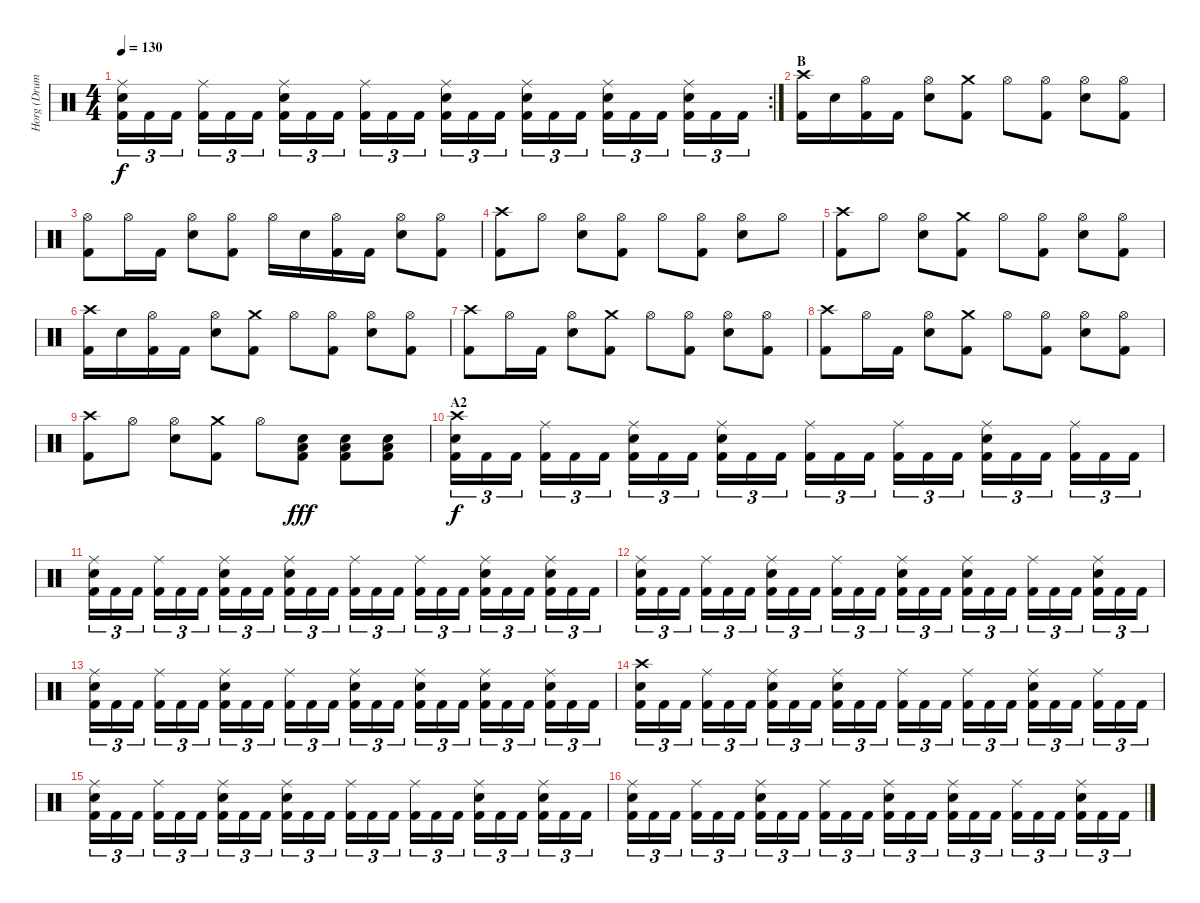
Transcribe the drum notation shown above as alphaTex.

\track ("Horg (Drums)" "Horg (Drum") {instrument percussion}
\staff {score}
\articulation defaults
\rc 2
\ts (4 4)
\tempo 130
\clef neutral
\ks c
("Ride (middle)" "Electric Snare (hit)" "Kick (hit) 2").16{tu (3 2) dy f} "Kick (hit) 2".16{tu (3 2)} "Kick (hit) 2".16{tu (3 2)} ("Ride (middle)" "Kick (hit) 2").16{tu (3 2)} "Kick (hit) 2".16{tu (3 2)} "Kick (hit) 2".16{tu (3 2)} ("Ride (middle)" "Electric Snare (hit)" "Kick (hit) 2").16{tu (3 2)} "Kick (hit) 2".16{tu (3 2)} "Kick (hit) 2".16{tu (3 2)} ("Ride (middle)" "Kick (hit) 2").16{tu (3 2)} "Kick (hit) 2".16{tu (3 2)} "Kick (hit) 2".16{tu (3 2)} ("Ride (middle)" "Electric Snare (hit)" "Kick (hit) 2").16{tu (3 2)} "Kick (hit) 2".16{tu (3 2)} "Kick (hit) 2".16{tu (3 2)} ("Ride (middle)" "Electric Snare (hit)" "Kick (hit) 2").16{tu (3 2)} "Kick (hit) 2".16{tu (3 2)} "Kick (hit) 2".16{tu (3 2)} ("Ride (middle)" "Electric Snare (hit)" "Kick (hit) 2").16{tu (3 2)} "Kick (hit) 2".16{tu (3 2)} "Kick (hit) 2".16{tu (3 2)} ("Ride (middle)" "Electric Snare (hit)" "Kick (hit) 2").16{tu (3 2)} "Kick (hit) 2".16{tu (3 2)} "Kick (hit) 2".16{tu (3 2)} |
\section ("" "B")
("Crash high (hit)" "Kick (hit) 2").16 "Electric Snare (hit)".16 ("Hi-Hat (open)" "Kick (hit) 2").16 "Kick (hit) 2".16 ("Hi-Hat (open)" "Electric Snare (hit)").8 ("Crash medium (hit)" "Kick (hit) 2").8 "Hi-Hat (open)".8 ("Hi-Hat (open)" "Kick (hit) 2").8 ("Hi-Hat (open)" "Electric Snare (hit)").8 ("Hi-Hat (open)" "Kick (hit) 2").8 |
("Hi-Hat (open)" "Kick (hit) 2").8 "Hi-Hat (open)".16 "Kick (hit) 2".16 ("Hi-Hat (open)" "Electric Snare (hit)").8 ("Hi-Hat (open)" "Kick (hit) 2").8 "Hi-Hat (open)".16 "Electric Snare (hit)".16 ("Hi-Hat (open)" "Kick (hit) 2").16 "Kick (hit) 2".16 ("Hi-Hat (open)" "Electric Snare (hit)").8 ("Hi-Hat (open)" "Kick (hit) 2").8 |
("Crash high (hit)" "Kick (hit) 2").8 "Hi-Hat (open)".8 ("Hi-Hat (open)" "Electric Snare (hit)").8 ("Hi-Hat (open)" "Kick (hit) 2").8 "Hi-Hat (open)".8 ("Hi-Hat (open)" "Kick (hit) 2").8 ("Hi-Hat (open)" "Electric Snare (hit)").8 "Hi-Hat (open)".8 |
("Crash high (hit)" "Kick (hit) 2").8 "Hi-Hat (open)".8 ("Hi-Hat (open)" "Electric Snare (hit)").8 ("Crash medium (hit)" "Kick (hit) 2").8 "Hi-Hat (open)".8 ("Hi-Hat (open)" "Kick (hit) 2").8 ("Hi-Hat (open)" "Electric Snare (hit)").8 ("Hi-Hat (open)" "Kick (hit) 2").8 |
("Crash high (hit)" "Kick (hit) 2").16 "Electric Snare (hit)".16 ("Hi-Hat (open)" "Kick (hit) 2").16 "Kick (hit) 2".16 ("Hi-Hat (open)" "Electric Snare (hit)").8 ("Crash medium (hit)" "Kick (hit) 2").8 "Hi-Hat (open)".8 ("Hi-Hat (open)" "Kick (hit) 2").8 ("Hi-Hat (open)" "Electric Snare (hit)").8 ("Hi-Hat (open)" "Kick (hit) 2").8 |
("Crash high (hit)" "Kick (hit) 2").8 "Hi-Hat (open)".16 "Kick (hit) 2".16 ("Hi-Hat (open)" "Electric Snare (hit)").8 ("Crash medium (hit)" "Kick (hit) 2").8 "Hi-Hat (open)".8 ("Hi-Hat (open)" "Kick (hit) 2").8 ("Hi-Hat (open)" "Electric Snare (hit)").8 ("Hi-Hat (open)" "Kick (hit) 2").8 |
("Crash high (hit)" "Kick (hit) 2").8 "Hi-Hat (open)".16 "Kick (hit) 2".16 ("Hi-Hat (open)" "Electric Snare (hit)").8 ("Crash medium (hit)" "Kick (hit) 2").8 "Hi-Hat (open)".8 ("Hi-Hat (open)" "Kick (hit) 2").8 ("Hi-Hat (open)" "Electric Snare (hit)").8 ("Hi-Hat (open)" "Kick (hit) 2").8 |
("Crash high (hit)" "Kick (hit) 2").8 "Hi-Hat (open)".8 ("Hi-Hat (open)" "Electric Snare (hit)").8 ("Crash medium (hit)" "Kick (hit) 2").8 "Hi-Hat (open)".8 ("Low Floor Tom (hit)" "Electric Snare (hit)" "Kick (hit) 2").8{dy fff} ("Low Floor Tom (hit)" "Electric Snare (hit)" "Kick (hit) 2").8 ("Low Floor Tom (hit)" "Electric Snare (hit)" "Kick (hit) 2").8 |
\section ("" "A2")
("Crash high (hit)" "Electric Snare (hit)" "Kick (hit) 2").16{tu (3 2) dy f} "Kick (hit) 2".16{tu (3 2)} "Kick (hit) 2".16{tu (3 2)} ("Ride (middle)" "Kick (hit) 2").16{tu (3 2)} "Kick (hit) 2".16{tu (3 2)} "Kick (hit) 2".16{tu (3 2)} ("Ride (middle)" "Electric Snare (hit)" "Kick (hit) 2").16{tu (3 2)} "Kick (hit) 2".16{tu (3 2)} "Kick (hit) 2".16{tu (3 2)} ("Ride (middle)" "Electric Snare (hit)" "Kick (hit) 2").16{tu (3 2)} "Kick (hit) 2".16{tu (3 2)} "Kick (hit) 2".16{tu (3 2)} ("Ride (middle)" "Kick (hit) 2").16{tu (3 2)} "Kick (hit) 2".16{tu (3 2)} "Kick (hit) 2".16{tu (3 2)} ("Ride (middle)" "Kick (hit) 2").16{tu (3 2)} "Kick (hit) 2".16{tu (3 2)} "Kick (hit) 2".16{tu (3 2)} ("Ride (middle)" "Electric Snare (hit)" "Kick (hit) 2").16{tu (3 2)} "Kick (hit) 2".16{tu (3 2)} "Kick (hit) 2".16{tu (3 2)} ("Ride (middle)" "Kick (hit) 2").16{tu (3 2)} "Kick (hit) 2".16{tu (3 2)} "Kick (hit) 2".16{tu (3 2)} |
("Ride (middle)" "Electric Snare (hit)" "Kick (hit) 2").16{tu (3 2)} "Kick (hit) 2".16{tu (3 2)} "Kick (hit) 2".16{tu (3 2)} ("Ride (middle)" "Kick (hit) 2").16{tu (3 2)} "Kick (hit) 2".16{tu (3 2)} "Kick (hit) 2".16{tu (3 2)} ("Ride (middle)" "Electric Snare (hit)" "Kick (hit) 2").16{tu (3 2)} "Kick (hit) 2".16{tu (3 2)} "Kick (hit) 2".16{tu (3 2)} ("Ride (middle)" "Electric Snare (hit)" "Kick (hit) 2").16{tu (3 2)} "Kick (hit) 2".16{tu (3 2)} "Kick (hit) 2".16{tu (3 2)} ("Ride (middle)" "Kick (hit) 2").16{tu (3 2)} "Kick (hit) 2".16{tu (3 2)} "Kick (hit) 2".16{tu (3 2)} ("Ride (middle)" "Kick (hit) 2").16{tu (3 2)} "Kick (hit) 2".16{tu (3 2)} "Kick (hit) 2".16{tu (3 2)} ("Ride (middle)" "Electric Snare (hit)" "Kick (hit) 2").16{tu (3 2)} "Kick (hit) 2".16{tu (3 2)} "Kick (hit) 2".16{tu (3 2)} ("Ride (middle)" "Electric Snare (hit)" "Kick (hit) 2").16{tu (3 2)} "Kick (hit) 2".16{tu (3 2)} "Kick (hit) 2".16{tu (3 2)} |
("Ride (middle)" "Electric Snare (hit)" "Kick (hit) 2").16{tu (3 2)} "Kick (hit) 2".16{tu (3 2)} "Kick (hit) 2".16{tu (3 2)} ("Ride (middle)" "Kick (hit) 2").16{tu (3 2)} "Kick (hit) 2".16{tu (3 2)} "Kick (hit) 2".16{tu (3 2)} ("Ride (middle)" "Electric Snare (hit)" "Kick (hit) 2").16{tu (3 2)} "Kick (hit) 2".16{tu (3 2)} "Kick (hit) 2".16{tu (3 2)} ("Ride (middle)" "Kick (hit) 2").16{tu (3 2)} "Kick (hit) 2".16{tu (3 2)} "Kick (hit) 2".16{tu (3 2)} ("Ride (middle)" "Electric Snare (hit)" "Kick (hit) 2").16{tu (3 2)} "Kick (hit) 2".16{tu (3 2)} "Kick (hit) 2".16{tu (3 2)} ("Ride (middle)" "Electric Snare (hit)" "Kick (hit) 2").16{tu (3 2)} "Kick (hit) 2".16{tu (3 2)} "Kick (hit) 2".16{tu (3 2)} ("Ride (middle)" "Kick (hit) 2").16{tu (3 2)} "Kick (hit) 2".16{tu (3 2)} "Kick (hit) 2".16{tu (3 2)} ("Ride (middle)" "Electric Snare (hit)" "Kick (hit) 2").16{tu (3 2)} "Kick (hit) 2".16{tu (3 2)} "Kick (hit) 2".16{tu (3 2)} |
("Ride (middle)" "Electric Snare (hit)" "Kick (hit) 2").16{tu (3 2)} "Kick (hit) 2".16{tu (3 2)} "Kick (hit) 2".16{tu (3 2)} ("Ride (middle)" "Kick (hit) 2").16{tu (3 2)} "Kick (hit) 2".16{tu (3 2)} "Kick (hit) 2".16{tu (3 2)} ("Ride (middle)" "Electric Snare (hit)" "Kick (hit) 2").16{tu (3 2)} "Kick (hit) 2".16{tu (3 2)} "Kick (hit) 2".16{tu (3 2)} ("Ride (middle)" "Kick (hit) 2").16{tu (3 2)} "Kick (hit) 2".16{tu (3 2)} "Kick (hit) 2".16{tu (3 2)} ("Ride (middle)" "Electric Snare (hit)" "Kick (hit) 2").16{tu (3 2)} "Kick (hit) 2".16{tu (3 2)} "Kick (hit) 2".16{tu (3 2)} ("Ride (middle)" "Electric Snare (hit)" "Kick (hit) 2").16{tu (3 2)} "Kick (hit) 2".16{tu (3 2)} "Kick (hit) 2".16{tu (3 2)} ("Ride (middle)" "Electric Snare (hit)" "Kick (hit) 2").16{tu (3 2)} "Kick (hit) 2".16{tu (3 2)} "Kick (hit) 2".16{tu (3 2)} ("Ride (middle)" "Electric Snare (hit)" "Kick (hit) 2").16{tu (3 2)} "Kick (hit) 2".16{tu (3 2)} "Kick (hit) 2".16{tu (3 2)} |
("Crash high (hit)" "Electric Snare (hit)" "Kick (hit) 2").16{tu (3 2)} "Kick (hit) 2".16{tu (3 2)} "Kick (hit) 2".16{tu (3 2)} ("Ride (middle)" "Kick (hit) 2").16{tu (3 2)} "Kick (hit) 2".16{tu (3 2)} "Kick (hit) 2".16{tu (3 2)} ("Ride (middle)" "Electric Snare (hit)" "Kick (hit) 2").16{tu (3 2)} "Kick (hit) 2".16{tu (3 2)} "Kick (hit) 2".16{tu (3 2)} ("Ride (middle)" "Electric Snare (hit)" "Kick (hit) 2").16{tu (3 2)} "Kick (hit) 2".16{tu (3 2)} "Kick (hit) 2".16{tu (3 2)} ("Ride (middle)" "Kick (hit) 2").16{tu (3 2)} "Kick (hit) 2".16{tu (3 2)} "Kick (hit) 2".16{tu (3 2)} ("Ride (middle)" "Kick (hit) 2").16{tu (3 2)} "Kick (hit) 2".16{tu (3 2)} "Kick (hit) 2".16{tu (3 2)} ("Ride (middle)" "Electric Snare (hit)" "Kick (hit) 2").16{tu (3 2)} "Kick (hit) 2".16{tu (3 2)} "Kick (hit) 2".16{tu (3 2)} ("Ride (middle)" "Kick (hit) 2").16{tu (3 2)} "Kick (hit) 2".16{tu (3 2)} "Kick (hit) 2".16{tu (3 2)} |
("Ride (middle)" "Electric Snare (hit)" "Kick (hit) 2").16{tu (3 2)} "Kick (hit) 2".16{tu (3 2)} "Kick (hit) 2".16{tu (3 2)} ("Ride (middle)" "Kick (hit) 2").16{tu (3 2)} "Kick (hit) 2".16{tu (3 2)} "Kick (hit) 2".16{tu (3 2)} ("Ride (middle)" "Electric Snare (hit)" "Kick (hit) 2").16{tu (3 2)} "Kick (hit) 2".16{tu (3 2)} "Kick (hit) 2".16{tu (3 2)} ("Ride (middle)" "Electric Snare (hit)" "Kick (hit) 2").16{tu (3 2)} "Kick (hit) 2".16{tu (3 2)} "Kick (hit) 2".16{tu (3 2)} ("Ride (middle)" "Kick (hit) 2").16{tu (3 2)} "Kick (hit) 2".16{tu (3 2)} "Kick (hit) 2".16{tu (3 2)} ("Ride (middle)" "Kick (hit) 2").16{tu (3 2)} "Kick (hit) 2".16{tu (3 2)} "Kick (hit) 2".16{tu (3 2)} ("Ride (middle)" "Electric Snare (hit)" "Kick (hit) 2").16{tu (3 2)} "Kick (hit) 2".16{tu (3 2)} "Kick (hit) 2".16{tu (3 2)} ("Ride (middle)" "Electric Snare (hit)" "Kick (hit) 2").16{tu (3 2)} "Kick (hit) 2".16{tu (3 2)} "Kick (hit) 2".16{tu (3 2)} |
("Ride (middle)" "Electric Snare (hit)" "Kick (hit) 2").16{tu (3 2)} "Kick (hit) 2".16{tu (3 2)} "Kick (hit) 2".16{tu (3 2)} ("Ride (middle)" "Kick (hit) 2").16{tu (3 2)} "Kick (hit) 2".16{tu (3 2)} "Kick (hit) 2".16{tu (3 2)} ("Ride (middle)" "Electric Snare (hit)" "Kick (hit) 2").16{tu (3 2)} "Kick (hit) 2".16{tu (3 2)} "Kick (hit) 2".16{tu (3 2)} ("Ride (middle)" "Kick (hit) 2").16{tu (3 2)} "Kick (hit) 2".16{tu (3 2)} "Kick (hit) 2".16{tu (3 2)} ("Ride (middle)" "Electric Snare (hit)" "Kick (hit) 2").16{tu (3 2)} "Kick (hit) 2".16{tu (3 2)} "Kick (hit) 2".16{tu (3 2)} ("Ride (middle)" "Electric Snare (hit)" "Kick (hit) 2").16{tu (3 2)} "Kick (hit) 2".16{tu (3 2)} "Kick (hit) 2".16{tu (3 2)} ("Ride (middle)" "Kick (hit) 2").16{tu (3 2)} "Kick (hit) 2".16{tu (3 2)} "Kick (hit) 2".16{tu (3 2)} ("Ride (middle)" "Electric Snare (hit)" "Kick (hit) 2").16{tu (3 2)} "Kick (hit) 2".16{tu (3 2)} "Kick (hit) 2".16{tu (3 2)}
